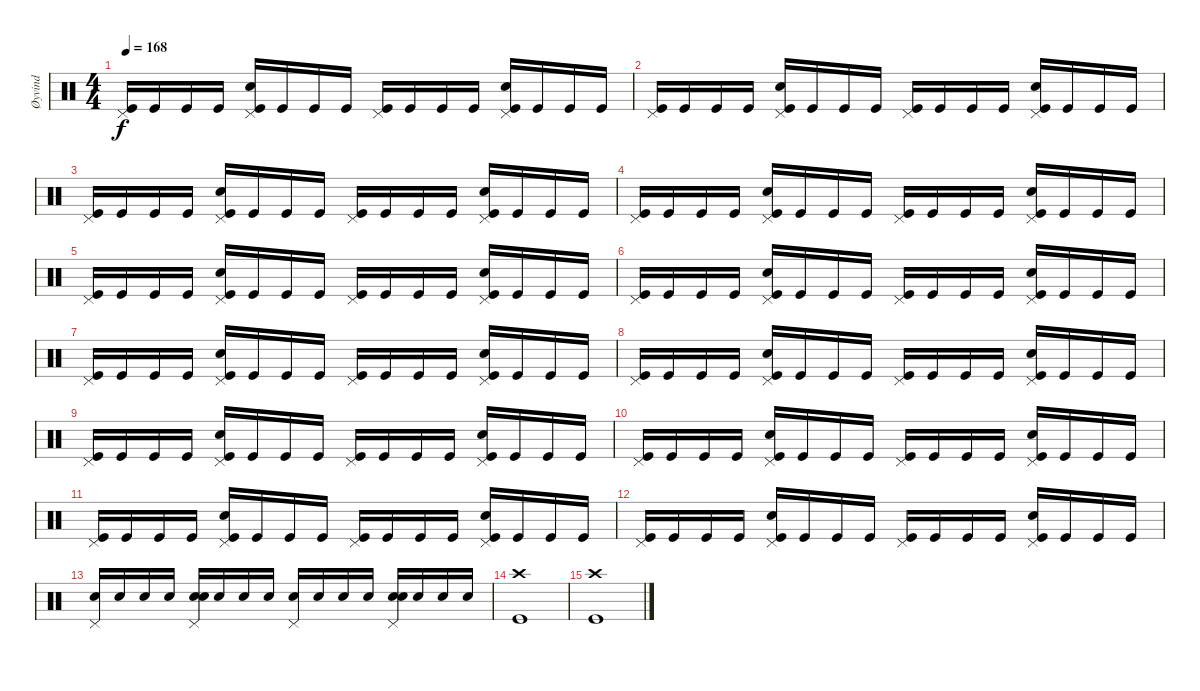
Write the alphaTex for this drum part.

\track ("Øyvind" "Øyvind") {instrument percussion}
\staff {score}
\articulation defaults
\ts (4 4)
\tempo 168
\clef neutral
\ks c
("Pedal Hi-Hat (hit)" "Kick (hit)").16{dy f} "Kick (hit)".16 "Kick (hit)".16 "Kick (hit)".16 ("Snare (hit) 2" "Pedal Hi-Hat (hit)" "Kick (hit)").16 "Kick (hit)".16 "Kick (hit)".16 "Kick (hit)".16 ("Pedal Hi-Hat (hit)" "Kick (hit)").16 "Kick (hit)".16 "Kick (hit)".16 "Kick (hit)".16 ("Snare (hit) 2" "Pedal Hi-Hat (hit)" "Kick (hit)").16 "Kick (hit)".16 "Kick (hit)".16 "Kick (hit)".16 |
("Pedal Hi-Hat (hit)" "Kick (hit)").16 "Kick (hit)".16 "Kick (hit)".16 "Kick (hit)".16 ("Snare (hit) 2" "Pedal Hi-Hat (hit)" "Kick (hit)").16 "Kick (hit)".16 "Kick (hit)".16 "Kick (hit)".16 ("Pedal Hi-Hat (hit)" "Kick (hit)").16 "Kick (hit)".16 "Kick (hit)".16 "Kick (hit)".16 ("Snare (hit) 2" "Pedal Hi-Hat (hit)" "Kick (hit)").16 "Kick (hit)".16 "Kick (hit)".16 "Kick (hit)".16 |
("Pedal Hi-Hat (hit)" "Kick (hit)").16 "Kick (hit)".16 "Kick (hit)".16 "Kick (hit)".16 ("Snare (hit) 2" "Pedal Hi-Hat (hit)" "Kick (hit)").16 "Kick (hit)".16 "Kick (hit)".16 "Kick (hit)".16 ("Pedal Hi-Hat (hit)" "Kick (hit)").16 "Kick (hit)".16 "Kick (hit)".16 "Kick (hit)".16 ("Snare (hit) 2" "Pedal Hi-Hat (hit)" "Kick (hit)").16 "Kick (hit)".16 "Kick (hit)".16 "Kick (hit)".16 |
("Pedal Hi-Hat (hit)" "Kick (hit)").16 "Kick (hit)".16 "Kick (hit)".16 "Kick (hit)".16 ("Snare (hit) 2" "Pedal Hi-Hat (hit)" "Kick (hit)").16 "Kick (hit)".16 "Kick (hit)".16 "Kick (hit)".16 ("Pedal Hi-Hat (hit)" "Kick (hit)").16 "Kick (hit)".16 "Kick (hit)".16 "Kick (hit)".16 ("Snare (hit) 2" "Pedal Hi-Hat (hit)" "Kick (hit)").16 "Kick (hit)".16 "Kick (hit)".16 "Kick (hit)".16 |
("Pedal Hi-Hat (hit)" "Kick (hit)").16 "Kick (hit)".16 "Kick (hit)".16 "Kick (hit)".16 ("Snare (hit) 2" "Pedal Hi-Hat (hit)" "Kick (hit)").16 "Kick (hit)".16 "Kick (hit)".16 "Kick (hit)".16 ("Pedal Hi-Hat (hit)" "Kick (hit)").16 "Kick (hit)".16 "Kick (hit)".16 "Kick (hit)".16 ("Snare (hit) 2" "Pedal Hi-Hat (hit)" "Kick (hit)").16 "Kick (hit)".16 "Kick (hit)".16 "Kick (hit)".16 |
("Pedal Hi-Hat (hit)" "Kick (hit)").16 "Kick (hit)".16 "Kick (hit)".16 "Kick (hit)".16 ("Snare (hit) 2" "Pedal Hi-Hat (hit)" "Kick (hit)").16 "Kick (hit)".16 "Kick (hit)".16 "Kick (hit)".16 ("Pedal Hi-Hat (hit)" "Kick (hit)").16 "Kick (hit)".16 "Kick (hit)".16 "Kick (hit)".16 ("Snare (hit) 2" "Pedal Hi-Hat (hit)" "Kick (hit)").16 "Kick (hit)".16 "Kick (hit)".16 "Kick (hit)".16 |
("Pedal Hi-Hat (hit)" "Kick (hit)").16 "Kick (hit)".16 "Kick (hit)".16 "Kick (hit)".16 ("Snare (hit) 2" "Pedal Hi-Hat (hit)" "Kick (hit)").16 "Kick (hit)".16 "Kick (hit)".16 "Kick (hit)".16 ("Pedal Hi-Hat (hit)" "Kick (hit)").16 "Kick (hit)".16 "Kick (hit)".16 "Kick (hit)".16 ("Snare (hit) 2" "Pedal Hi-Hat (hit)" "Kick (hit)").16 "Kick (hit)".16 "Kick (hit)".16 "Kick (hit)".16 |
("Pedal Hi-Hat (hit)" "Kick (hit)").16 "Kick (hit)".16 "Kick (hit)".16 "Kick (hit)".16 ("Snare (hit) 2" "Pedal Hi-Hat (hit)" "Kick (hit)").16 "Kick (hit)".16 "Kick (hit)".16 "Kick (hit)".16 ("Pedal Hi-Hat (hit)" "Kick (hit)").16 "Kick (hit)".16 "Kick (hit)".16 "Kick (hit)".16 ("Snare (hit) 2" "Pedal Hi-Hat (hit)" "Kick (hit)").16 "Kick (hit)".16 "Kick (hit)".16 "Kick (hit)".16 |
("Pedal Hi-Hat (hit)" "Kick (hit)").16 "Kick (hit)".16 "Kick (hit)".16 "Kick (hit)".16 ("Snare (hit) 2" "Pedal Hi-Hat (hit)" "Kick (hit)").16 "Kick (hit)".16 "Kick (hit)".16 "Kick (hit)".16 ("Pedal Hi-Hat (hit)" "Kick (hit)").16 "Kick (hit)".16 "Kick (hit)".16 "Kick (hit)".16 ("Snare (hit) 2" "Pedal Hi-Hat (hit)" "Kick (hit)").16 "Kick (hit)".16 "Kick (hit)".16 "Kick (hit)".16 |
("Pedal Hi-Hat (hit)" "Kick (hit)").16 "Kick (hit)".16 "Kick (hit)".16 "Kick (hit)".16 ("Snare (hit) 2" "Pedal Hi-Hat (hit)" "Kick (hit)").16 "Kick (hit)".16 "Kick (hit)".16 "Kick (hit)".16 ("Pedal Hi-Hat (hit)" "Kick (hit)").16 "Kick (hit)".16 "Kick (hit)".16 "Kick (hit)".16 ("Snare (hit) 2" "Pedal Hi-Hat (hit)" "Kick (hit)").16 "Kick (hit)".16 "Kick (hit)".16 "Kick (hit)".16 |
("Pedal Hi-Hat (hit)" "Kick (hit)").16 "Kick (hit)".16 "Kick (hit)".16 "Kick (hit)".16 ("Snare (hit) 2" "Pedal Hi-Hat (hit)" "Kick (hit)").16 "Kick (hit)".16 "Kick (hit)".16 "Kick (hit)".16 ("Pedal Hi-Hat (hit)" "Kick (hit)").16 "Kick (hit)".16 "Kick (hit)".16 "Kick (hit)".16 ("Snare (hit) 2" "Pedal Hi-Hat (hit)" "Kick (hit)").16 "Kick (hit)".16 "Kick (hit)".16 "Kick (hit)".16 |
("Pedal Hi-Hat (hit)" "Kick (hit)").16 "Kick (hit)".16 "Kick (hit)".16 "Kick (hit)".16 ("Snare (hit) 2" "Pedal Hi-Hat (hit)" "Kick (hit)").16 "Kick (hit)".16 "Kick (hit)".16 "Kick (hit)".16 ("Pedal Hi-Hat (hit)" "Kick (hit)").16 "Kick (hit)".16 "Kick (hit)".16 "Kick (hit)".16 ("Snare (hit) 2" "Pedal Hi-Hat (hit)" "Kick (hit)").16 "Kick (hit)".16 "Kick (hit)".16 "Kick (hit)".16 |
("Pedal Hi-Hat (hit)" "Snare (hit) 2").16 "Snare (hit) 2".16 "Snare (hit) 2".16 "Snare (hit) 2".16 ("Snare (hit) 2" "Pedal Hi-Hat (hit)" "Snare (hit) 2").16 "Snare (hit) 2".16 "Snare (hit) 2".16 "Snare (hit) 2".16 ("Pedal Hi-Hat (hit)" "Snare (hit) 2").16 "Snare (hit) 2".16 "Snare (hit) 2".16 "Snare (hit) 2".16 ("Snare (hit) 2" "Pedal Hi-Hat (hit)" "Snare (hit) 2").16 "Snare (hit) 2".16 "Snare (hit) 2".16 "Snare (hit) 2".16 |
("Crash high (hit)" "Kick (hit)").1 |
("Crash high (hit)" "Kick (hit)").1
